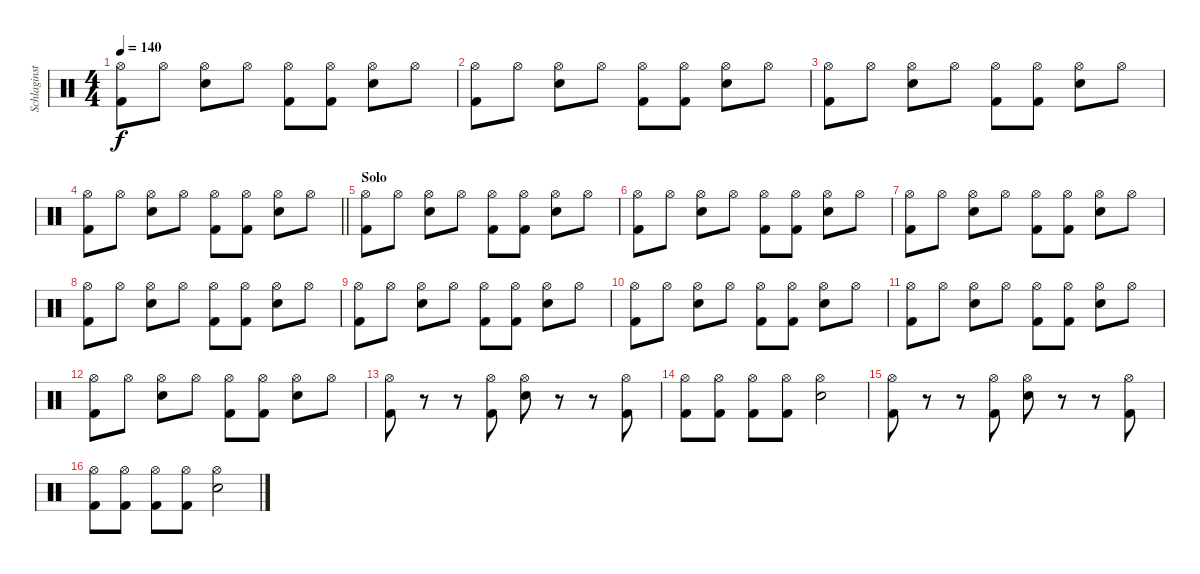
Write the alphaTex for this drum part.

\track ("Schlaginstrumente - Auswahl" "Schlaginst") {instrument percussion}
\staff {score}
\articulation defaults
\ts (4 4)
\tempo 140
\clef neutral
\ks c
("Hi-Hat (open)" "Kick (hit) 2").8{dy f} "Hi-Hat (open)".8 ("Hi-Hat (open)" "Snare (hit) 2").8 "Hi-Hat (open)".8 ("Hi-Hat (open)" "Kick (hit) 2").8 ("Hi-Hat (open)" "Kick (hit) 2").8 ("Hi-Hat (open)" "Snare (hit) 2").8 "Hi-Hat (open)".8 |
("Hi-Hat (open)" "Kick (hit) 2").8 "Hi-Hat (open)".8 ("Hi-Hat (open)" "Snare (hit) 2").8 "Hi-Hat (open)".8 ("Hi-Hat (open)" "Kick (hit) 2").8 ("Hi-Hat (open)" "Kick (hit) 2").8 ("Hi-Hat (open)" "Snare (hit) 2").8 "Hi-Hat (open)".8 |
("Hi-Hat (open)" "Kick (hit) 2").8 "Hi-Hat (open)".8 ("Hi-Hat (open)" "Snare (hit) 2").8 "Hi-Hat (open)".8 ("Hi-Hat (open)" "Kick (hit) 2").8 ("Hi-Hat (open)" "Kick (hit) 2").8 ("Hi-Hat (open)" "Snare (hit) 2").8 "Hi-Hat (open)".8 |
\barLineRight lightlight
("Hi-Hat (open)" "Kick (hit) 2").8 "Hi-Hat (open)".8 ("Hi-Hat (open)" "Snare (hit) 2").8 "Hi-Hat (open)".8 ("Hi-Hat (open)" "Kick (hit) 2").8 ("Hi-Hat (open)" "Kick (hit) 2").8 ("Hi-Hat (open)" "Snare (hit) 2").8 "Hi-Hat (open)".8 |
\section ("" "Solo")
("Hi-Hat (open)" "Kick (hit) 2").8 "Hi-Hat (open)".8 ("Hi-Hat (open)" "Snare (hit) 2").8 "Hi-Hat (open)".8 ("Hi-Hat (open)" "Kick (hit) 2").8 ("Hi-Hat (open)" "Kick (hit) 2").8 ("Hi-Hat (open)" "Snare (hit) 2").8 "Hi-Hat (open)".8 |
("Hi-Hat (open)" "Kick (hit) 2").8 "Hi-Hat (open)".8 ("Hi-Hat (open)" "Snare (hit) 2").8 "Hi-Hat (open)".8 ("Hi-Hat (open)" "Kick (hit) 2").8 ("Hi-Hat (open)" "Kick (hit) 2").8 ("Hi-Hat (open)" "Snare (hit) 2").8 "Hi-Hat (open)".8 |
("Hi-Hat (open)" "Kick (hit) 2").8 "Hi-Hat (open)".8 ("Hi-Hat (open)" "Snare (hit) 2").8 "Hi-Hat (open)".8 ("Hi-Hat (open)" "Kick (hit) 2").8 ("Hi-Hat (open)" "Kick (hit) 2").8 ("Hi-Hat (open)" "Snare (hit) 2").8 "Hi-Hat (open)".8 |
("Hi-Hat (open)" "Kick (hit) 2").8 "Hi-Hat (open)".8 ("Hi-Hat (open)" "Snare (hit) 2").8 "Hi-Hat (open)".8 ("Hi-Hat (open)" "Kick (hit) 2").8 ("Hi-Hat (open)" "Kick (hit) 2").8 ("Hi-Hat (open)" "Snare (hit) 2").8 "Hi-Hat (open)".8 |
("Hi-Hat (open)" "Kick (hit) 2").8 "Hi-Hat (open)".8 ("Hi-Hat (open)" "Snare (hit) 2").8 "Hi-Hat (open)".8 ("Hi-Hat (open)" "Kick (hit) 2").8 ("Hi-Hat (open)" "Kick (hit) 2").8 ("Hi-Hat (open)" "Snare (hit) 2").8 "Hi-Hat (open)".8 |
("Hi-Hat (open)" "Kick (hit) 2").8 "Hi-Hat (open)".8 ("Hi-Hat (open)" "Snare (hit) 2").8 "Hi-Hat (open)".8 ("Hi-Hat (open)" "Kick (hit) 2").8 ("Hi-Hat (open)" "Kick (hit) 2").8 ("Hi-Hat (open)" "Snare (hit) 2").8 "Hi-Hat (open)".8 |
("Hi-Hat (open)" "Kick (hit) 2").8 "Hi-Hat (open)".8 ("Hi-Hat (open)" "Snare (hit) 2").8 "Hi-Hat (open)".8 ("Hi-Hat (open)" "Kick (hit) 2").8 ("Hi-Hat (open)" "Kick (hit) 2").8 ("Hi-Hat (open)" "Snare (hit) 2").8 "Hi-Hat (open)".8 |
("Hi-Hat (open)" "Kick (hit) 2").8 "Hi-Hat (open)".8 ("Hi-Hat (open)" "Snare (hit) 2").8 "Hi-Hat (open)".8 ("Hi-Hat (open)" "Kick (hit) 2").8 ("Hi-Hat (open)" "Kick (hit) 2").8 ("Hi-Hat (open)" "Snare (hit) 2").8 "Hi-Hat (open)".8 |
("Hi-Hat (open)" "Kick (hit) 2").8 r.8 r.8 ("Hi-Hat (open)" "Kick (hit) 2").8 ("Hi-Hat (open)" "Snare (hit) 2").8 r.8 r.8 ("Hi-Hat (open)" "Kick (hit) 2").8 |
("Hi-Hat (open)" "Kick (hit) 2").8 ("Hi-Hat (open)" "Kick (hit) 2").8 ("Hi-Hat (open)" "Kick (hit) 2").8 ("Hi-Hat (open)" "Kick (hit) 2").8 ("Hi-Hat (open)" "Snare (hit) 2").2 |
("Hi-Hat (open)" "Kick (hit) 2").8 r.8 r.8 ("Hi-Hat (open)" "Kick (hit) 2").8 ("Hi-Hat (open)" "Snare (hit) 2").8 r.8 r.8 ("Hi-Hat (open)" "Kick (hit) 2").8 |
("Hi-Hat (open)" "Kick (hit) 2").8 ("Hi-Hat (open)" "Kick (hit) 2").8 ("Hi-Hat (open)" "Kick (hit) 2").8 ("Hi-Hat (open)" "Kick (hit) 2").8 ("Hi-Hat (open)" "Snare (hit) 2").2
